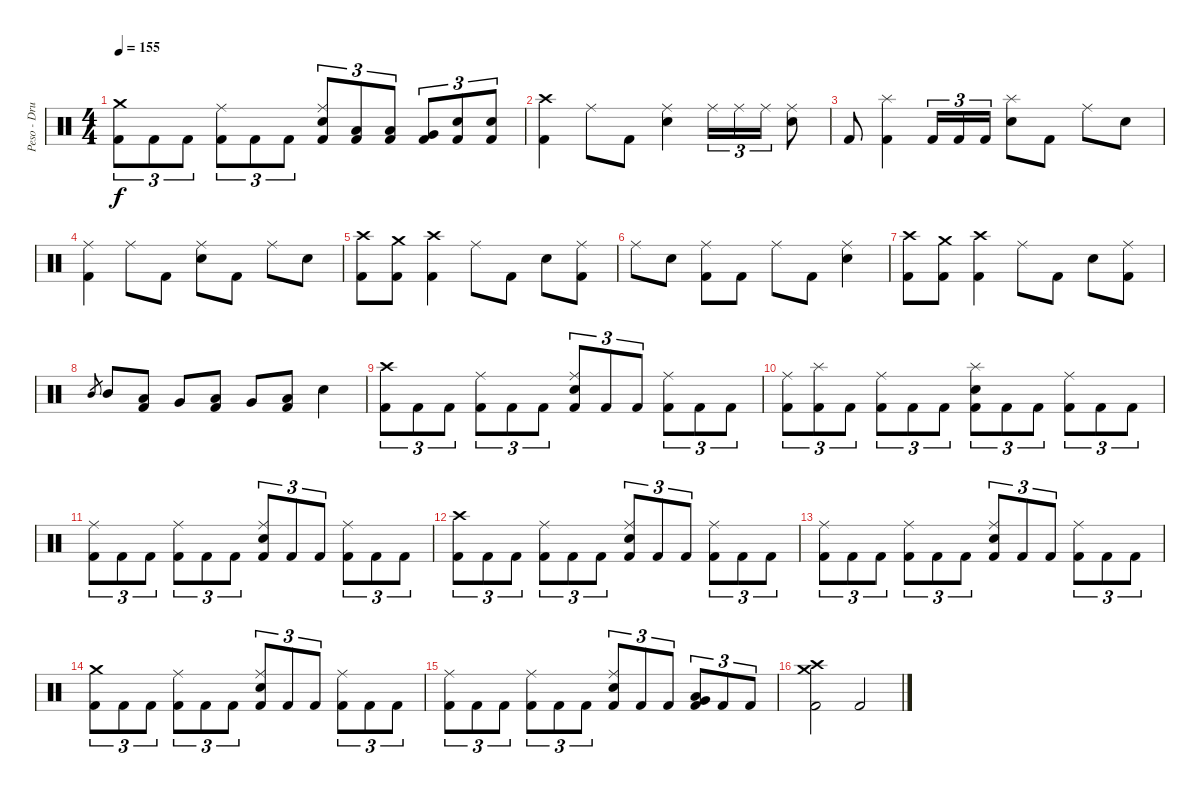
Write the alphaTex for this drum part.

\track ("Peso - Drums" "Peso - Dru") {instrument percussion}
\staff {score}
\articulation defaults
\ts (4 4)
\tempo 155
\clef neutral
\ks c
("Crash medium (hit)" "Kick (hit) 2").8{tu (3 2) dy f} "Kick (hit) 2".8{tu (3 2)} "Kick (hit) 2".8{tu (3 2)} ("Ride (middle)" "Kick (hit) 2").8{tu (3 2)} "Kick (hit) 2".8{tu (3 2)} "Kick (hit) 2".8{tu (3 2)} ("Ride (middle)" "Electric Snare (hit)" "Kick (hit) 2").8{tu (3 2)} ("Low Tom (hit)" "Kick (hit) 2").8{tu (3 2)} ("Low Tom (hit)" "Kick (hit) 2").8{tu (3 2)} ("Very Low Tom (hit)" "Kick (hit) 2").8{tu (3 2)} ("Electric Snare (hit)" "Kick (hit) 2").8{tu (3 2)} ("Electric Snare (hit)" "Kick (hit) 2").8{tu (3 2)} |
("Crash high (hit)" "Kick (hit) 2").4 "Ride (middle)".8 "Kick (hit) 2".8 ("Ride (middle)" "Electric Snare (hit)").4 "Ride (middle)".16{tu (3 2)} "Ride (middle)".16{tu (3 2)} "Ride (middle)".16{tu (3 2)} ("Ride (middle)" "Electric Snare (hit)").8 |
"Kick (hit) 2".8 ("Splash (hit)" "Kick (hit) 2").4 "Kick (hit) 2".16{tu (3 2)} "Kick (hit) 2".16{tu (3 2)} "Kick (hit) 2".16{tu (3 2)} ("Splash (hit)" "Electric Snare (hit)").8 "Kick (hit) 2".8 "Ride (middle)".8 "Electric Snare (hit)".8 |
("Ride (middle)" "Kick (hit) 2").4 "Ride (middle)".8 "Kick (hit) 2".8 ("Ride (middle)" "Electric Snare (hit)").8 "Kick (hit) 2".8 "Ride (middle)".8 "Electric Snare (hit)".8 |
("Crash high (hit)" "Kick (hit) 2").8 ("Crash medium (hit)" "Kick (hit) 2").8 ("Crash high (hit)" "Kick (hit) 2").4 "Ride (middle)".8 "Kick (hit) 2".8 "Electric Snare (hit)".8 ("Ride (middle)" "Kick (hit) 2").8 |
"Ride (middle)".8 "Electric Snare (hit)".8 ("Ride (middle)" "Kick (hit) 2").8 "Kick (hit) 2".8 "Ride (middle)".8 "Kick (hit) 2".8 ("Ride (middle)" "Electric Snare (hit)").4 |
("Crash high (hit)" "Kick (hit) 2").8 ("Crash medium (hit)" "Kick (hit) 2").8 ("Crash high (hit)" "Kick (hit) 2").4 "Ride (middle)".8 "Kick (hit) 2".8 "Electric Snare (hit)".8 ("Ride (middle)" "Kick (hit) 2").8 |
"Mid Tom (hit)".8{gr} "Mid Tom (hit)".8 ("Low Tom (hit)" "Kick (hit) 2").8 "Very Low Tom (hit)".8 ("Low Tom (hit)" "Kick (hit) 2").8 "Very Low Tom (hit)".8 ("Low Floor Tom (hit)" "Kick (hit) 2").8 "Electric Snare (hit)".4 |
("Crash high (hit)" "Kick (hit) 2").8{tu (3 2)} "Kick (hit) 2".8{tu (3 2)} "Kick (hit) 2".8{tu (3 2)} ("Ride (middle)" "Kick (hit) 2").8{tu (3 2)} "Kick (hit) 2".8{tu (3 2)} "Kick (hit) 2".8{tu (3 2)} ("Ride (middle)" "Electric Snare (hit)" "Kick (hit) 2").8{tu (3 2)} "Kick (hit) 2".8{tu (3 2)} "Kick (hit) 2".8{tu (3 2)} ("Ride (middle)" "Kick (hit) 2").8{tu (3 2)} "Kick (hit) 2".8{tu (3 2)} "Kick (hit) 2".8{tu (3 2)} |
("Ride (middle)" "Kick (hit) 2").8{tu (3 2)} ("Splash (hit)" "Kick (hit) 2").8{tu (3 2)} "Kick (hit) 2".8{tu (3 2)} ("Ride (middle)" "Kick (hit) 2").8{tu (3 2)} "Kick (hit) 2".8{tu (3 2)} "Kick (hit) 2".8{tu (3 2)} ("Splash (hit)" "Electric Snare (hit)" "Kick (hit) 2").8{tu (3 2)} "Kick (hit) 2".8{tu (3 2)} "Kick (hit) 2".8{tu (3 2)} ("Ride (middle)" "Kick (hit) 2").8{tu (3 2)} "Kick (hit) 2".8{tu (3 2)} "Kick (hit) 2".8{tu (3 2)} |
("Ride (middle)" "Kick (hit) 2").8{tu (3 2)} "Kick (hit) 2".8{tu (3 2)} "Kick (hit) 2".8{tu (3 2)} ("Ride (middle)" "Kick (hit) 2").8{tu (3 2)} "Kick (hit) 2".8{tu (3 2)} "Kick (hit) 2".8{tu (3 2)} ("Ride (middle)" "Electric Snare (hit)" "Kick (hit) 2").8{tu (3 2)} "Kick (hit) 2".8{tu (3 2)} "Kick (hit) 2".8{tu (3 2)} ("Ride (middle)" "Kick (hit) 2").8{tu (3 2)} "Kick (hit) 2".8{tu (3 2)} "Kick (hit) 2".8{tu (3 2)} |
("Crash high (hit)" "Kick (hit) 2").8{tu (3 2)} "Kick (hit) 2".8{tu (3 2)} "Kick (hit) 2".8{tu (3 2)} ("Ride (middle)" "Kick (hit) 2").8{tu (3 2)} "Kick (hit) 2".8{tu (3 2)} "Kick (hit) 2".8{tu (3 2)} ("Ride (middle)" "Electric Snare (hit)" "Kick (hit) 2").8{tu (3 2)} "Kick (hit) 2".8{tu (3 2)} "Kick (hit) 2".8{tu (3 2)} ("Ride (middle)" "Kick (hit) 2").8{tu (3 2)} "Kick (hit) 2".8{tu (3 2)} "Kick (hit) 2".8{tu (3 2)} |
("Ride (middle)" "Kick (hit) 2").8{tu (3 2)} "Kick (hit) 2".8{tu (3 2)} "Kick (hit) 2".8{tu (3 2)} ("Ride (middle)" "Kick (hit) 2").8{tu (3 2)} "Kick (hit) 2".8{tu (3 2)} "Kick (hit) 2".8{tu (3 2)} ("Ride (middle)" "Electric Snare (hit)" "Kick (hit) 2").8{tu (3 2)} "Kick (hit) 2".8{tu (3 2)} "Kick (hit) 2".8{tu (3 2)} ("Ride (middle)" "Kick (hit) 2").8{tu (3 2)} "Kick (hit) 2".8{tu (3 2)} "Kick (hit) 2".8{tu (3 2)} |
("Crash medium (hit)" "Kick (hit) 2").8{tu (3 2)} "Kick (hit) 2".8{tu (3 2)} "Kick (hit) 2".8{tu (3 2)} ("Ride (middle)" "Kick (hit) 2").8{tu (3 2)} "Kick (hit) 2".8{tu (3 2)} "Kick (hit) 2".8{tu (3 2)} ("Ride (middle)" "Electric Snare (hit)" "Kick (hit) 2").8{tu (3 2)} "Kick (hit) 2".8{tu (3 2)} "Kick (hit) 2".8{tu (3 2)} ("Ride (middle)" "Kick (hit) 2").8{tu (3 2)} "Kick (hit) 2".8{tu (3 2)} "Kick (hit) 2".8{tu (3 2)} |
("Ride (middle)" "Kick (hit) 2").8{tu (3 2)} "Kick (hit) 2".8{tu (3 2)} "Kick (hit) 2".8{tu (3 2)} ("Ride (middle)" "Kick (hit) 2").8{tu (3 2)} "Kick (hit) 2".8{tu (3 2)} "Kick (hit) 2".8{tu (3 2)} ("Ride (middle)" "Electric Snare (hit)" "Kick (hit) 2").8{tu (3 2)} "Kick (hit) 2".8{tu (3 2)} "Kick (hit) 2".8{tu (3 2)} ("Very Low Tom (hit)" "Low Floor Tom (hit)" "Kick (hit) 2").8{tu (3 2)} "Kick (hit) 2".8{tu (3 2)} "Kick (hit) 2".8{tu (3 2)} |
("Crash high (hit)" "Crash medium (hit)" "Kick (hit) 2").2 "Kick (hit) 2".2
